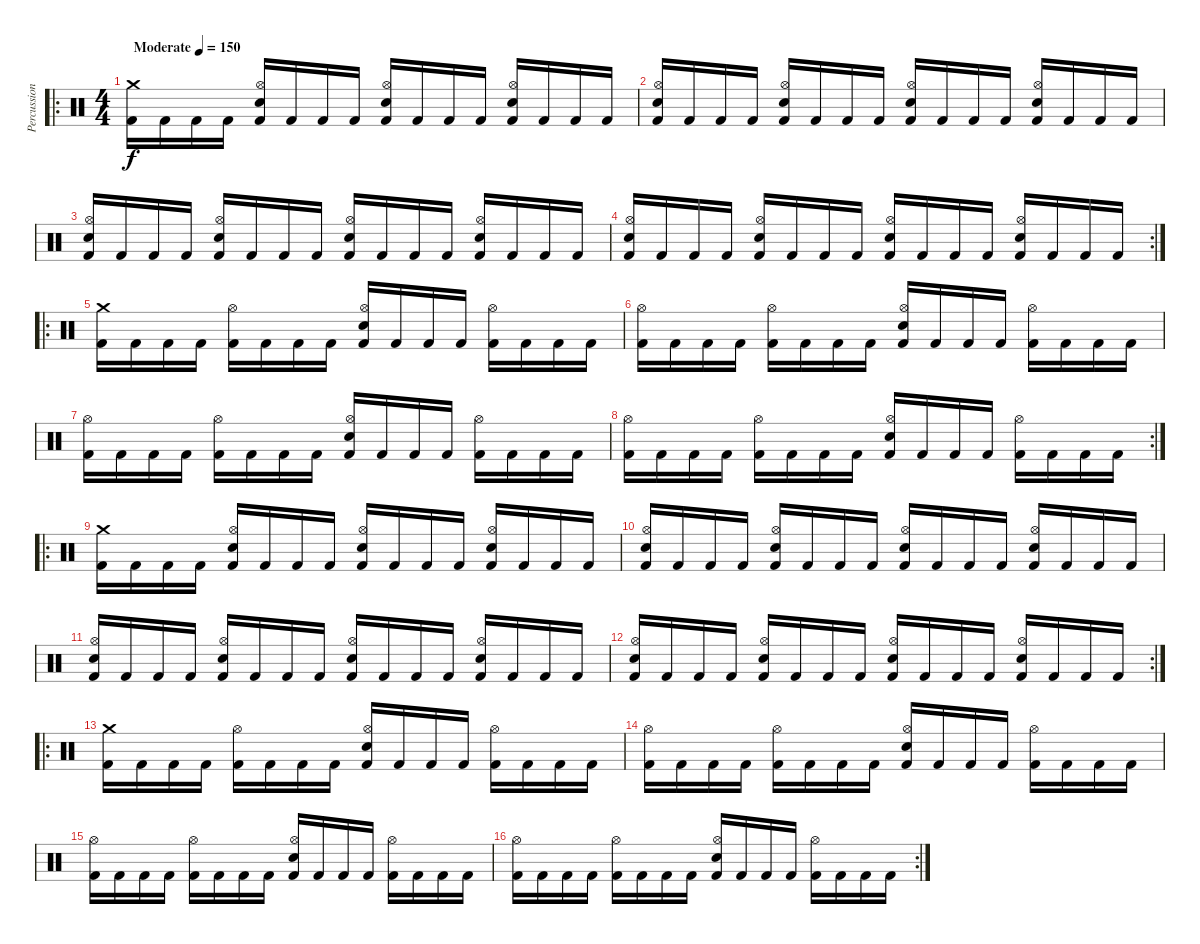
\track ("Percussion" "Percussion") {instrument percussion}
\staff {score}
\articulation defaults
\ro
\ts (4 4)
\tempo (150 "Moderate")
\clef neutral
\ks c
("Crash medium (hit)" "Kick (hit) 2").16{dy f} "Kick (hit) 2".16 "Kick (hit) 2".16 "Kick (hit) 2".16 ("Hi-Hat (open)" "Snare (hit) 2" "Kick (hit) 2").16 "Kick (hit) 2".16 "Kick (hit) 2".16 "Kick (hit) 2".16 ("Hi-Hat (open)" "Snare (hit) 2" "Kick (hit) 2").16 "Kick (hit) 2".16 "Kick (hit) 2".16 "Kick (hit) 2".16 ("Hi-Hat (open)" "Snare (hit) 2" "Kick (hit) 2").16 "Kick (hit) 2".16 "Kick (hit) 2".16 "Kick (hit) 2".16 |
("Hi-Hat (open)" "Snare (hit) 2" "Kick (hit) 2").16 "Kick (hit) 2".16 "Kick (hit) 2".16 "Kick (hit) 2".16 ("Hi-Hat (open)" "Snare (hit) 2" "Kick (hit) 2").16 "Kick (hit) 2".16 "Kick (hit) 2".16 "Kick (hit) 2".16 ("Hi-Hat (open)" "Snare (hit) 2" "Kick (hit) 2").16 "Kick (hit) 2".16 "Kick (hit) 2".16 "Kick (hit) 2".16 ("Hi-Hat (open)" "Snare (hit) 2" "Kick (hit) 2").16 "Kick (hit) 2".16 "Kick (hit) 2".16 "Kick (hit) 2".16 |
("Hi-Hat (open)" "Snare (hit) 2" "Kick (hit) 2").16 "Kick (hit) 2".16 "Kick (hit) 2".16 "Kick (hit) 2".16 ("Hi-Hat (open)" "Snare (hit) 2" "Kick (hit) 2").16 "Kick (hit) 2".16 "Kick (hit) 2".16 "Kick (hit) 2".16 ("Hi-Hat (open)" "Snare (hit) 2" "Kick (hit) 2").16 "Kick (hit) 2".16 "Kick (hit) 2".16 "Kick (hit) 2".16 ("Hi-Hat (open)" "Snare (hit) 2" "Kick (hit) 2").16 "Kick (hit) 2".16 "Kick (hit) 2".16 "Kick (hit) 2".16 |
\rc 2
("Hi-Hat (open)" "Snare (hit) 2" "Kick (hit) 2").16 "Kick (hit) 2".16 "Kick (hit) 2".16 "Kick (hit) 2".16 ("Hi-Hat (open)" "Snare (hit) 2" "Kick (hit) 2").16 "Kick (hit) 2".16 "Kick (hit) 2".16 "Kick (hit) 2".16 ("Hi-Hat (open)" "Snare (hit) 2" "Kick (hit) 2").16 "Kick (hit) 2".16 "Kick (hit) 2".16 "Kick (hit) 2".16 ("Hi-Hat (open)" "Snare (hit) 2" "Kick (hit) 2").16 "Kick (hit) 2".16 "Kick (hit) 2".16 "Kick (hit) 2".16 |
\ro
("Crash medium (hit)" "Kick (hit) 2").16 "Kick (hit) 2".16 "Kick (hit) 2".16 "Kick (hit) 2".16 ("Hi-Hat (open)" "Kick (hit) 2").16 "Kick (hit) 2".16 "Kick (hit) 2".16 "Kick (hit) 2".16 ("Hi-Hat (open)" "Snare (hit) 2" "Kick (hit) 2").16 "Kick (hit) 2".16 "Kick (hit) 2".16 "Kick (hit) 2".16 ("Hi-Hat (open)" "Kick (hit) 2").16 "Kick (hit) 2".16 "Kick (hit) 2".16 "Kick (hit) 2".16 |
("Hi-Hat (open)" "Kick (hit) 2").16 "Kick (hit) 2".16 "Kick (hit) 2".16 "Kick (hit) 2".16 ("Hi-Hat (open)" "Kick (hit) 2").16 "Kick (hit) 2".16 "Kick (hit) 2".16 "Kick (hit) 2".16 ("Hi-Hat (open)" "Snare (hit) 2" "Kick (hit) 2").16 "Kick (hit) 2".16 "Kick (hit) 2".16 "Kick (hit) 2".16 ("Hi-Hat (open)" "Kick (hit) 2").16 "Kick (hit) 2".16 "Kick (hit) 2".16 "Kick (hit) 2".16 |
("Hi-Hat (open)" "Kick (hit) 2").16 "Kick (hit) 2".16 "Kick (hit) 2".16 "Kick (hit) 2".16 ("Hi-Hat (open)" "Kick (hit) 2").16 "Kick (hit) 2".16 "Kick (hit) 2".16 "Kick (hit) 2".16 ("Hi-Hat (open)" "Snare (hit) 2" "Kick (hit) 2").16 "Kick (hit) 2".16 "Kick (hit) 2".16 "Kick (hit) 2".16 ("Hi-Hat (open)" "Kick (hit) 2").16 "Kick (hit) 2".16 "Kick (hit) 2".16 "Kick (hit) 2".16 |
\rc 2
("Hi-Hat (open)" "Kick (hit) 2").16 "Kick (hit) 2".16 "Kick (hit) 2".16 "Kick (hit) 2".16 ("Hi-Hat (open)" "Kick (hit) 2").16 "Kick (hit) 2".16 "Kick (hit) 2".16 "Kick (hit) 2".16 ("Hi-Hat (open)" "Snare (hit) 2" "Kick (hit) 2").16 "Kick (hit) 2".16 "Kick (hit) 2".16 "Kick (hit) 2".16 ("Hi-Hat (open)" "Kick (hit) 2").16 "Kick (hit) 2".16 "Kick (hit) 2".16 "Kick (hit) 2".16 |
\ro
("Crash medium (hit)" "Kick (hit) 2").16 "Kick (hit) 2".16 "Kick (hit) 2".16 "Kick (hit) 2".16 ("Hi-Hat (open)" "Snare (hit) 2" "Kick (hit) 2").16 "Kick (hit) 2".16 "Kick (hit) 2".16 "Kick (hit) 2".16 ("Hi-Hat (open)" "Snare (hit) 2" "Kick (hit) 2").16 "Kick (hit) 2".16 "Kick (hit) 2".16 "Kick (hit) 2".16 ("Hi-Hat (open)" "Snare (hit) 2" "Kick (hit) 2").16 "Kick (hit) 2".16 "Kick (hit) 2".16 "Kick (hit) 2".16 |
("Hi-Hat (open)" "Snare (hit) 2" "Kick (hit) 2").16 "Kick (hit) 2".16 "Kick (hit) 2".16 "Kick (hit) 2".16 ("Hi-Hat (open)" "Snare (hit) 2" "Kick (hit) 2").16 "Kick (hit) 2".16 "Kick (hit) 2".16 "Kick (hit) 2".16 ("Hi-Hat (open)" "Snare (hit) 2" "Kick (hit) 2").16 "Kick (hit) 2".16 "Kick (hit) 2".16 "Kick (hit) 2".16 ("Hi-Hat (open)" "Snare (hit) 2" "Kick (hit) 2").16 "Kick (hit) 2".16 "Kick (hit) 2".16 "Kick (hit) 2".16 |
("Hi-Hat (open)" "Snare (hit) 2" "Kick (hit) 2").16 "Kick (hit) 2".16 "Kick (hit) 2".16 "Kick (hit) 2".16 ("Hi-Hat (open)" "Snare (hit) 2" "Kick (hit) 2").16 "Kick (hit) 2".16 "Kick (hit) 2".16 "Kick (hit) 2".16 ("Hi-Hat (open)" "Snare (hit) 2" "Kick (hit) 2").16 "Kick (hit) 2".16 "Kick (hit) 2".16 "Kick (hit) 2".16 ("Hi-Hat (open)" "Snare (hit) 2" "Kick (hit) 2").16 "Kick (hit) 2".16 "Kick (hit) 2".16 "Kick (hit) 2".16 |
\rc 2
("Hi-Hat (open)" "Snare (hit) 2" "Kick (hit) 2").16 "Kick (hit) 2".16 "Kick (hit) 2".16 "Kick (hit) 2".16 ("Hi-Hat (open)" "Snare (hit) 2" "Kick (hit) 2").16 "Kick (hit) 2".16 "Kick (hit) 2".16 "Kick (hit) 2".16 ("Hi-Hat (open)" "Snare (hit) 2" "Kick (hit) 2").16 "Kick (hit) 2".16 "Kick (hit) 2".16 "Kick (hit) 2".16 ("Hi-Hat (open)" "Snare (hit) 2" "Kick (hit) 2").16 "Kick (hit) 2".16 "Kick (hit) 2".16 "Kick (hit) 2".16 |
\ro
("Crash medium (hit)" "Kick (hit) 2").16 "Kick (hit) 2".16 "Kick (hit) 2".16 "Kick (hit) 2".16 ("Hi-Hat (open)" "Kick (hit) 2").16 "Kick (hit) 2".16 "Kick (hit) 2".16 "Kick (hit) 2".16 ("Hi-Hat (open)" "Snare (hit) 2" "Kick (hit) 2").16 "Kick (hit) 2".16 "Kick (hit) 2".16 "Kick (hit) 2".16 ("Hi-Hat (open)" "Kick (hit) 2").16 "Kick (hit) 2".16 "Kick (hit) 2".16 "Kick (hit) 2".16 |
("Hi-Hat (open)" "Kick (hit) 2").16 "Kick (hit) 2".16 "Kick (hit) 2".16 "Kick (hit) 2".16 ("Hi-Hat (open)" "Kick (hit) 2").16 "Kick (hit) 2".16 "Kick (hit) 2".16 "Kick (hit) 2".16 ("Hi-Hat (open)" "Snare (hit) 2" "Kick (hit) 2").16 "Kick (hit) 2".16 "Kick (hit) 2".16 "Kick (hit) 2".16 ("Hi-Hat (open)" "Kick (hit) 2").16 "Kick (hit) 2".16 "Kick (hit) 2".16 "Kick (hit) 2".16 |
("Hi-Hat (open)" "Kick (hit) 2").16 "Kick (hit) 2".16 "Kick (hit) 2".16 "Kick (hit) 2".16 ("Hi-Hat (open)" "Kick (hit) 2").16 "Kick (hit) 2".16 "Kick (hit) 2".16 "Kick (hit) 2".16 ("Hi-Hat (open)" "Snare (hit) 2" "Kick (hit) 2").16 "Kick (hit) 2".16 "Kick (hit) 2".16 "Kick (hit) 2".16 ("Hi-Hat (open)" "Kick (hit) 2").16 "Kick (hit) 2".16 "Kick (hit) 2".16 "Kick (hit) 2".16 |
\rc 2
("Hi-Hat (open)" "Kick (hit) 2").16 "Kick (hit) 2".16 "Kick (hit) 2".16 "Kick (hit) 2".16 ("Hi-Hat (open)" "Kick (hit) 2").16 "Kick (hit) 2".16 "Kick (hit) 2".16 "Kick (hit) 2".16 ("Hi-Hat (open)" "Snare (hit) 2" "Kick (hit) 2").16 "Kick (hit) 2".16 "Kick (hit) 2".16 "Kick (hit) 2".16 ("Hi-Hat (open)" "Kick (hit) 2").16 "Kick (hit) 2".16 "Kick (hit) 2".16 "Kick (hit) 2".16
